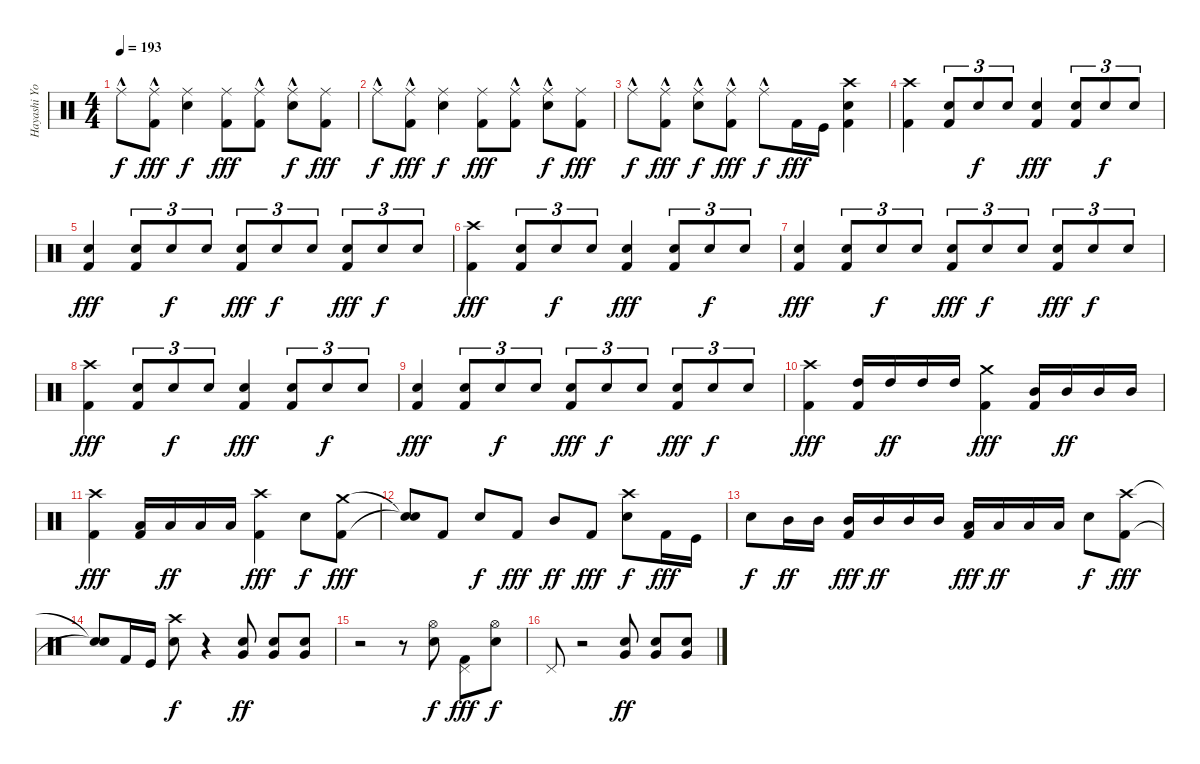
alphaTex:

\track ("Hayashi Yoshiki(Yoshiki)" "Hayashi Yo") {instrument percussion}
\staff {score}
\articulation defaults
\ts (4 4)
\tempo 193
\clef neutral
\ks c "Ride (middle)"{hac}.8{dy f}
("Ride (middle)"{hac} "Kick (hit) 2").8{dy fff} ("Ride (middle)" "Electric Snare (hit)").4{dy f} ("Ride (middle)" "Kick (hit) 2").8{dy fff} ("Ride (middle)"{hac} "Kick (hit) 2").8 ("Ride (middle)"{hac} "Electric Snare (hit)").8{dy f} ("Ride (middle)" "Kick (hit) 2").8{dy fff} |
"Ride (middle)"{hac}.8{dy f} ("Ride (middle)"{hac} "Kick (hit) 2").8{dy fff} ("Ride (middle)" "Electric Snare (hit)").4{dy f} ("Ride (middle)" "Kick (hit) 2").8{dy fff} ("Ride (middle)"{hac} "Kick (hit) 2").8 ("Ride (middle)"{hac} "Electric Snare (hit)").8{dy f} ("Ride (middle)" "Kick (hit) 2").8{dy fff} |
"Ride (middle)"{hac}.8{dy f} ("Ride (middle)"{hac} "Kick (hit) 2").8{dy fff} ("Ride (middle)"{hac} "Electric Snare (hit)").8{dy f} ("Ride (middle)"{hac} "Kick (hit) 2").8{dy fff} "Ride (middle)"{hac}.8{dy f} "Kick (hit) 2".16{dy fff} "Kick (hit)".16 ("Crash high (hit)" "Electric Snare (hit)" "Kick (hit) 2").4 |
("Crash high (hit)" "Kick (hit) 2").4 ("Electric Snare (hit)" "Kick (hit) 2").8{tu (3 2)} "Electric Snare (hit)".8{tu (3 2) dy f} "Electric Snare (hit)".8{tu (3 2)} ("Electric Snare (hit)" "Kick (hit) 2").4{dy fff} ("Electric Snare (hit)" "Kick (hit) 2").8{tu (3 2)} "Electric Snare (hit)".8{tu (3 2) dy f} "Electric Snare (hit)".8{tu (3 2)} |
("Electric Snare (hit)" "Kick (hit) 2").4{dy fff} ("Electric Snare (hit)" "Kick (hit) 2").8{tu (3 2)} "Electric Snare (hit)".8{tu (3 2) dy f} "Electric Snare (hit)".8{tu (3 2)} ("Electric Snare (hit)" "Kick (hit) 2").8{tu (3 2) dy fff} "Electric Snare (hit)".8{tu (3 2) dy f} "Electric Snare (hit)".8{tu (3 2)} ("Electric Snare (hit)" "Kick (hit) 2").8{tu (3 2) dy fff} "Electric Snare (hit)".8{tu (3 2) dy f} "Electric Snare (hit)".8{tu (3 2)} |
("Crash high (hit)" "Kick (hit) 2").4{dy fff} ("Electric Snare (hit)" "Kick (hit) 2").8{tu (3 2)} "Electric Snare (hit)".8{tu (3 2) dy f} "Electric Snare (hit)".8{tu (3 2)} ("Electric Snare (hit)" "Kick (hit) 2").4{dy fff} ("Electric Snare (hit)" "Kick (hit) 2").8{tu (3 2)} "Electric Snare (hit)".8{tu (3 2) dy f} "Electric Snare (hit)".8{tu (3 2)} |
("Electric Snare (hit)" "Kick (hit) 2").4{dy fff} ("Electric Snare (hit)" "Kick (hit) 2").8{tu (3 2)} "Electric Snare (hit)".8{tu (3 2) dy f} "Electric Snare (hit)".8{tu (3 2)} ("Electric Snare (hit)" "Kick (hit) 2").8{tu (3 2) dy fff} "Electric Snare (hit)".8{tu (3 2) dy f} "Electric Snare (hit)".8{tu (3 2)} ("Electric Snare (hit)" "Kick (hit) 2").8{tu (3 2) dy fff} "Electric Snare (hit)".8{tu (3 2) dy f} "Electric Snare (hit)".8{tu (3 2)} |
("Crash high (hit)" "Kick (hit) 2").4{dy fff} ("Electric Snare (hit)" "Kick (hit) 2").8{tu (3 2)} "Electric Snare (hit)".8{tu (3 2) dy f} "Electric Snare (hit)".8{tu (3 2)} ("Electric Snare (hit)" "Kick (hit) 2").4{dy fff} ("Electric Snare (hit)" "Kick (hit) 2").8{tu (3 2)} "Electric Snare (hit)".8{tu (3 2) dy f} "Electric Snare (hit)".8{tu (3 2)} |
("Electric Snare (hit)" "Kick (hit) 2").4{dy fff} ("Electric Snare (hit)" "Kick (hit) 2").8{tu (3 2)} "Electric Snare (hit)".8{tu (3 2) dy f} "Electric Snare (hit)".8{tu (3 2)} ("Electric Snare (hit)" "Kick (hit) 2").8{tu (3 2) dy fff} "Electric Snare (hit)".8{tu (3 2) dy f} "Electric Snare (hit)".8{tu (3 2)} ("Electric Snare (hit)" "Kick (hit) 2").8{tu (3 2) dy fff} "Electric Snare (hit)".8{tu (3 2) dy f} "Electric Snare (hit)".8{tu (3 2)} |
("Crash high (hit)" "Kick (hit) 2").4{dy fff} ("High Tom (hit)" "Kick (hit) 2").16 "High Tom (hit)".16{dy ff} "High Tom (hit)".16 "High Tom (hit)".16 ("Crash medium (hit)" "Kick (hit) 2").4{dy fff} ("Mid Tom (hit)" "Kick (hit) 2").16 "Mid Tom (hit)".16{dy ff} "Mid Tom (hit)".16 "Mid Tom (hit)".16 |
("Crash high (hit)" "Kick (hit) 2").4{dy fff} ("Low Tom (hit)" "Kick (hit) 2").16 "Low Tom (hit)".16{dy ff} "Low Tom (hit)".16 "Low Tom (hit)".16 ("Crash high (hit)" "Kick (hit) 2").4{dy fff} "Electric Snare (hit)".8{dy f} ("Crash medium (hit)" "Kick (hit) 2").8{dy fff} |
("Snare (hit)"{t} "Snare (hit)"{t}).8 "Kick (hit) 2".8 "Electric Snare (hit)".8{dy f} "Kick (hit) 2".8{dy fff} "Mid Tom (hit)".8{dy ff} "Kick (hit) 2".8{dy fff} ("Crash high (hit)" "Electric Snare (hit)").8{dy f} "Kick (hit) 2".16{dy fff} "Kick (hit)".16 |
"Electric Snare (hit)".8{dy f} "Mid Tom (hit)".16{dy ff} "Mid Tom (hit)".16 ("Mid Tom (hit)" "Kick (hit) 2").16{dy fff} "Mid Tom (hit)".16{dy ff} "Mid Tom (hit)".16 "Mid Tom (hit)".16 ("Low Tom (hit)" "Kick (hit) 2").16{dy fff} "Low Tom (hit)".16{dy ff} "Low Tom (hit)".16 "Low Tom (hit)".16 "Electric Snare (hit)".8{dy f} ("Crash high (hit)" "Kick (hit) 2").8{dy fff} |
("Snare (hit)"{t} "Snare (hit)"{t}).8 "Kick (hit) 2".16 "Kick (hit)".16 ("Crash high (hit)" "Electric Snare (hit)").8{dy f} r.4 ("Very Low Tom (hit)" "Electric Snare (hit)").8{dy ff} ("Very Low Tom (hit)" "Electric Snare (hit)").8 ("Very Low Tom (hit)" "Electric Snare (hit)").8 |
r.2 r.8 ("Hi-Hat (open)" "Electric Snare (hit)").8{dy f} ("Pedal Hi-Hat (hit)" "Kick (hit) 2").8{dy fff} ("Hi-Hat (open)" "Electric Snare (hit)").8{dy f} |
"Pedal Hi-Hat (hit)".8 r.2 ("Very Low Tom (hit)" "Electric Snare (hit)").8{dy ff} ("Very Low Tom (hit)" "Electric Snare (hit)").8 ("Very Low Tom (hit)" "Electric Snare (hit)").8
